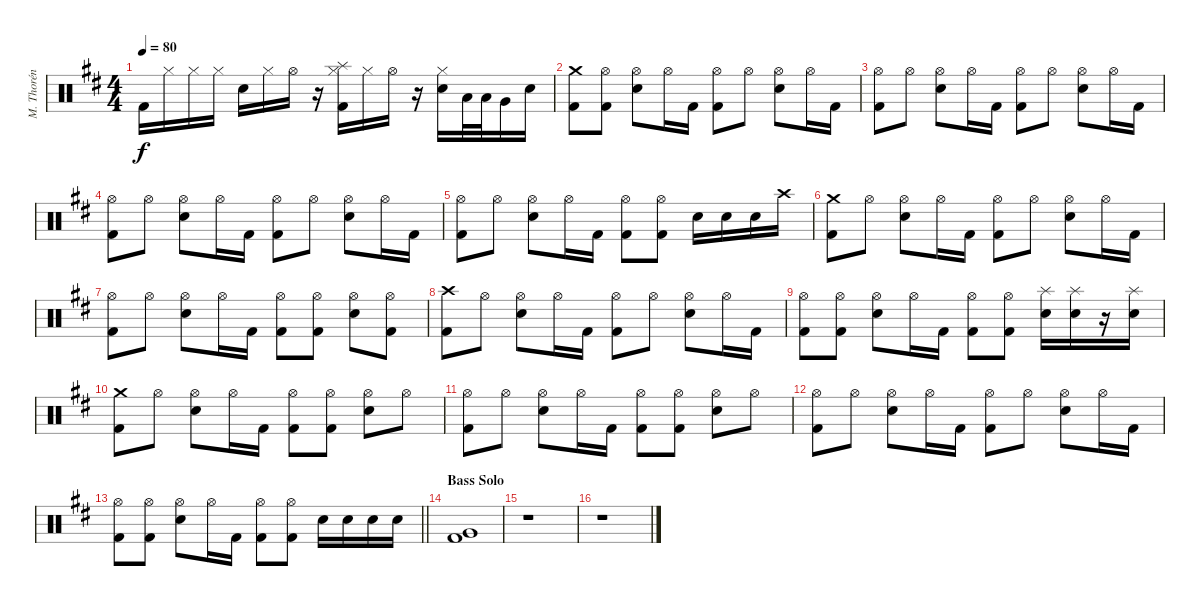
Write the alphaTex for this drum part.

\track ("M. Thorén (Drums)" "M. Thorén ") {instrument percussion}
\staff {score}
\articulation defaults
\ts (4 4)
\tempo 80
\clef neutral
\ks bminor "Kick (hit) 2".16{dy f} "Hi-Hat (closed)".16 "Hi-Hat (closed)".16 "Hi-Hat (closed)".16 "Electric Snare (hit)".16 "Hi-Hat (closed)".16 "Hi-Hat (open)".16
r.16 ("Splash (hit)" "Hi-Hat (closed)" "Kick (hit) 2").16 "Hi-Hat (closed)".16 "Hi-Hat (open)".16 r.16 ("Hi-Hat (closed)" "Electric Snare (hit)").16 "Low Tom (hit)".32 "Low Tom (hit)".32 "Very Low Tom (hit)".16 "Electric Snare (hit)".16 |
("Crash medium (hit)" "Kick (hit) 2").8 ("Hi-Hat (open)" "Kick (hit) 2").8 ("Hi-Hat (open)" "Electric Snare (hit)").8 "Hi-Hat (open)".16 "Kick (hit) 2".16 ("Hi-Hat (open)" "Kick (hit) 2").8 "Hi-Hat (open)".8 ("Hi-Hat (open)" "Electric Snare (hit)").8 "Hi-Hat (open)".16 "Kick (hit) 2".16 |
("Hi-Hat (open)" "Kick (hit) 2").8 "Hi-Hat (open)".8 ("Hi-Hat (open)" "Electric Snare (hit)").8 "Hi-Hat (open)".16 "Kick (hit) 2".16 ("Hi-Hat (open)" "Kick (hit) 2").8 "Hi-Hat (open)".8 ("Hi-Hat (open)" "Electric Snare (hit)").8 "Hi-Hat (open)".16 "Kick (hit) 2".16 |
("Hi-Hat (open)" "Kick (hit) 2").8 "Hi-Hat (open)".8 ("Hi-Hat (open)" "Electric Snare (hit)").8 "Hi-Hat (open)".16 "Kick (hit) 2".16 ("Hi-Hat (open)" "Kick (hit) 2").8 "Hi-Hat (open)".8 ("Hi-Hat (open)" "Electric Snare (hit)").8 "Hi-Hat (open)".16 "Kick (hit) 2".16 |
("Hi-Hat (open)" "Kick (hit) 2").8 "Hi-Hat (open)".8 ("Hi-Hat (open)" "Electric Snare (hit)").8 "Hi-Hat (open)".16 "Kick (hit) 2".16 ("Hi-Hat (open)" "Kick (hit) 2").8 ("Hi-Hat (open)" "Kick (hit) 2").8 "Electric Snare (hit)".16 "Electric Snare (hit)".16 "Electric Snare (hit)".16 "Crash high (hit)".16 |
("Crash medium (hit)" "Kick (hit) 2").8 "Hi-Hat (open)".8 ("Hi-Hat (open)" "Electric Snare (hit)").8 "Hi-Hat (open)".16 "Kick (hit) 2".16 ("Hi-Hat (open)" "Kick (hit) 2").8 "Hi-Hat (open)".8 ("Hi-Hat (open)" "Electric Snare (hit)").8 "Hi-Hat (open)".16 "Kick (hit) 2".16 |
("Hi-Hat (open)" "Kick (hit) 2").8 "Hi-Hat (open)".8 ("Hi-Hat (open)" "Electric Snare (hit)").8 "Hi-Hat (open)".16 "Kick (hit) 2".16 ("Hi-Hat (open)" "Kick (hit) 2").8 ("Hi-Hat (open)" "Kick (hit) 2").8 ("Hi-Hat (open)" "Electric Snare (hit)").8 ("Hi-Hat (open)" "Kick (hit) 2").8 |
("Crash high (hit)" "Kick (hit) 2").8 "Hi-Hat (open)".8 ("Hi-Hat (open)" "Electric Snare (hit)").8 "Hi-Hat (open)".16 "Kick (hit) 2".16 ("Hi-Hat (open)" "Kick (hit) 2").8 "Hi-Hat (open)".8 ("Hi-Hat (open)" "Electric Snare (hit)").8 "Hi-Hat (open)".16 "Kick (hit) 2".16 |
("Hi-Hat (open)" "Kick (hit) 2").8 ("Hi-Hat (open)" "Kick (hit) 2").8 ("Hi-Hat (open)" "Electric Snare (hit)").8 "Hi-Hat (open)".16 "Kick (hit) 2".16 ("Hi-Hat (open)" "Kick (hit) 2").8 ("Hi-Hat (open)" "Kick (hit) 2").8 ("Splash (hit)" "Electric Snare (hit)").16 ("Splash (hit)" "Electric Snare (hit)").16 r.16 ("Splash (hit)" "Electric Snare (hit)").16 |
("Crash medium (hit)" "Kick (hit) 2").8 "Hi-Hat (open)".8 ("Hi-Hat (open)" "Electric Snare (hit)").8 "Hi-Hat (open)".16 "Kick (hit) 2".16 ("Hi-Hat (open)" "Kick (hit) 2").8 ("Hi-Hat (open)" "Kick (hit) 2").8 ("Hi-Hat (open)" "Electric Snare (hit)").8 "Hi-Hat (open)".8 |
("Hi-Hat (open)" "Kick (hit) 2").8 "Hi-Hat (open)".8 ("Hi-Hat (open)" "Electric Snare (hit)").8 "Hi-Hat (open)".16 "Kick (hit) 2".16 ("Hi-Hat (open)" "Kick (hit) 2").8 ("Hi-Hat (open)" "Kick (hit) 2").8 ("Hi-Hat (open)" "Electric Snare (hit)").8 "Hi-Hat (open)".8 |
("Hi-Hat (open)" "Kick (hit) 2").8 "Hi-Hat (open)".8 ("Hi-Hat (open)" "Electric Snare (hit)").8 "Hi-Hat (open)".16 "Kick (hit) 2".16 ("Hi-Hat (open)" "Kick (hit) 2").8 "Hi-Hat (open)".8 ("Hi-Hat (open)" "Electric Snare (hit)").8 "Hi-Hat (open)".16 "Kick (hit) 2".16 |
\barLineRight lightlight
("Hi-Hat (open)" "Kick (hit) 2").8 ("Hi-Hat (open)" "Kick (hit) 2").8 ("Hi-Hat (open)" "Electric Snare (hit)").8 "Hi-Hat (open)".16 "Kick (hit) 2".16 ("Hi-Hat (open)" "Kick (hit) 2").8 ("Hi-Hat (open)" "Kick (hit) 2").8 "Electric Snare (hit)".16 "Electric Snare (hit)".16 "Electric Snare (hit)".16 "Electric Snare (hit)".16 |
\section ("" "Bass Solo")
("Very Low Tom (hit)" "Kick (hit) 2").1 |
r.1 |
r.1
